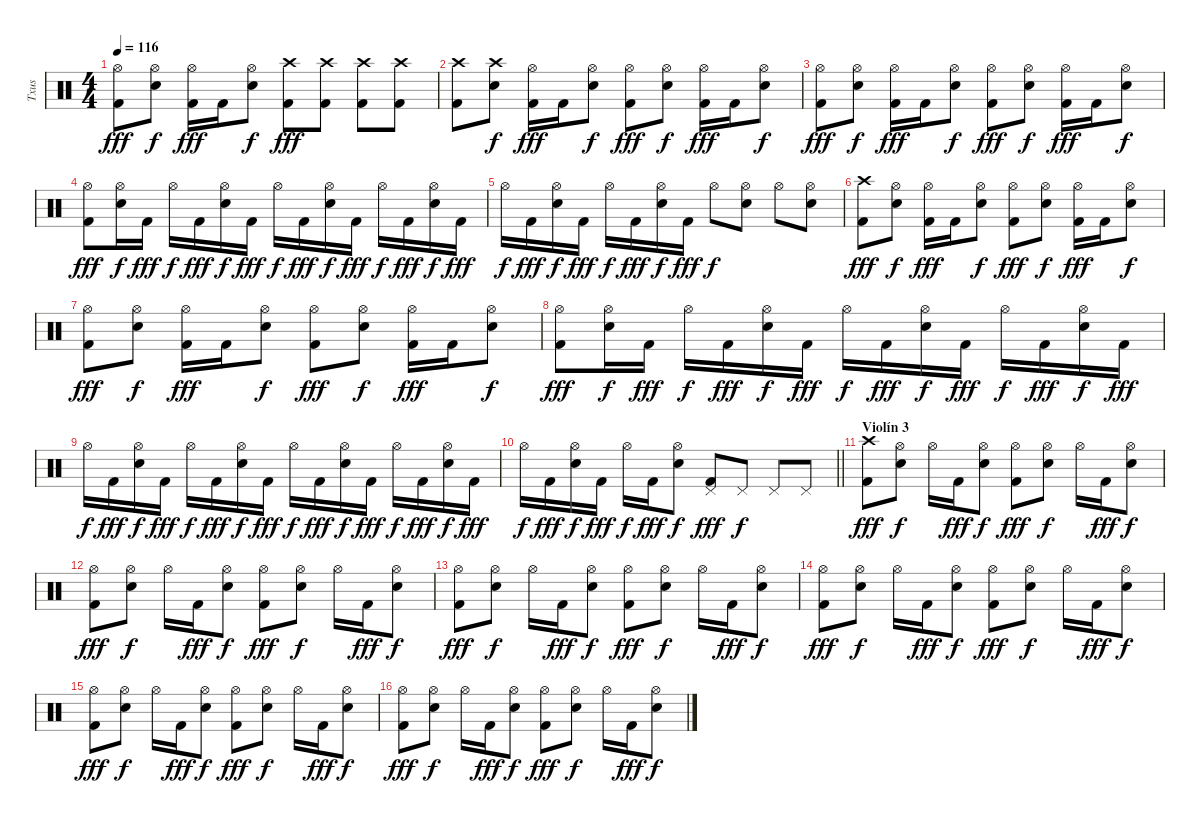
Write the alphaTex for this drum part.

\track ("Txus" "Txus") {instrument percussion}
\staff {score}
\articulation defaults
\ts (4 4)
\tempo 116
\clef neutral
\ks c
("Kick (hit) 2" "Hi-Hat (open)").8{dy fff} ("Electric Snare (hit)" "Hi-Hat (open)").8{dy f} ("Kick (hit) 2" "Hi-Hat (open)").16{dy fff} "Kick (hit) 2".16 ("Electric Snare (hit)" "Hi-Hat (open)").8{dy f} ("Kick (hit) 2" "Crash high (hit)").8{dy fff} ("Kick (hit) 2" "Crash high (hit)").8 ("Kick (hit) 2" "Crash high (hit)").8 ("Kick (hit) 2" "Crash high (hit)").8 |
("Kick (hit) 2" "Crash high (hit)").8 ("Electric Snare (hit)" "Crash high (hit)").8{dy f} ("Kick (hit) 2" "Hi-Hat (open)").16{dy fff} "Kick (hit) 2".16 ("Electric Snare (hit)" "Hi-Hat (open)").8{dy f} ("Kick (hit) 2" "Hi-Hat (open)").8{dy fff} ("Electric Snare (hit)" "Hi-Hat (open)").8{dy f} ("Kick (hit) 2" "Hi-Hat (open)").16{dy fff} "Kick (hit) 2".16 ("Electric Snare (hit)" "Hi-Hat (open)").8{dy f} |
("Kick (hit) 2" "Hi-Hat (open)").8{dy fff} ("Electric Snare (hit)" "Hi-Hat (open)").8{dy f} ("Kick (hit) 2" "Hi-Hat (open)").16{dy fff} "Kick (hit) 2".16 ("Electric Snare (hit)" "Hi-Hat (open)").8{dy f} ("Kick (hit) 2" "Hi-Hat (open)").8{dy fff} ("Electric Snare (hit)" "Hi-Hat (open)").8{dy f} ("Kick (hit) 2" "Hi-Hat (open)").16{dy fff} "Kick (hit) 2".16 ("Electric Snare (hit)" "Hi-Hat (open)").8{dy f} |
("Kick (hit) 2" "Hi-Hat (open)").8{dy fff} ("Electric Snare (hit)" "Hi-Hat (open)").16{dy f} "Kick (hit) 2".16{dy fff} "Hi-Hat (open)".16{dy f} "Kick (hit) 2".16{dy fff} ("Electric Snare (hit)" "Hi-Hat (open)").16{dy f} "Kick (hit) 2".16{dy fff} "Hi-Hat (open)".16{dy f} "Kick (hit) 2".16{dy fff} ("Electric Snare (hit)" "Hi-Hat (open)").16{dy f} "Kick (hit) 2".16{dy fff} "Hi-Hat (open)".16{dy f} "Kick (hit) 2".16{dy fff} ("Electric Snare (hit)" "Hi-Hat (open)").16{dy f} "Kick (hit) 2".16{dy fff} |
"Hi-Hat (open)".16{dy f} "Kick (hit) 2".16{dy fff} ("Electric Snare (hit)" "Hi-Hat (open)").16{dy f} "Kick (hit) 2".16{dy fff} "Hi-Hat (open)".16{dy f} "Kick (hit) 2".16{dy fff} ("Electric Snare (hit)" "Hi-Hat (open)").16{dy f} "Kick (hit) 2".16{dy fff} "Hi-Hat (open)".8{dy f} ("Electric Snare (hit)" "Hi-Hat (open)").8 "Hi-Hat (open)".8 ("Electric Snare (hit)" "Hi-Hat (open)").8 |
("Kick (hit) 2" "Crash high (hit)").8{dy fff} ("Electric Snare (hit)" "Hi-Hat (open)").8{dy f} ("Kick (hit) 2" "Hi-Hat (open)").16{dy fff} "Kick (hit) 2".16 ("Electric Snare (hit)" "Hi-Hat (open)").8{dy f} ("Kick (hit) 2" "Hi-Hat (open)").8{dy fff} ("Electric Snare (hit)" "Hi-Hat (open)").8{dy f} ("Kick (hit) 2" "Hi-Hat (open)").16{dy fff} "Kick (hit) 2".16 ("Electric Snare (hit)" "Hi-Hat (open)").8{dy f} |
("Kick (hit) 2" "Hi-Hat (open)").8{dy fff} ("Electric Snare (hit)" "Hi-Hat (open)").8{dy f} ("Kick (hit) 2" "Hi-Hat (open)").16{dy fff} "Kick (hit) 2".16 ("Electric Snare (hit)" "Hi-Hat (open)").8{dy f} ("Kick (hit) 2" "Hi-Hat (open)").8{dy fff} ("Electric Snare (hit)" "Hi-Hat (open)").8{dy f} ("Kick (hit) 2" "Hi-Hat (open)").16{dy fff} "Kick (hit) 2".16 ("Electric Snare (hit)" "Hi-Hat (open)").8{dy f} |
("Kick (hit) 2" "Hi-Hat (open)").8{dy fff} ("Electric Snare (hit)" "Hi-Hat (open)").16{dy f} "Kick (hit) 2".16{dy fff} "Hi-Hat (open)".16{dy f} "Kick (hit) 2".16{dy fff} ("Electric Snare (hit)" "Hi-Hat (open)").16{dy f} "Kick (hit) 2".16{dy fff} "Hi-Hat (open)".16{dy f} "Kick (hit) 2".16{dy fff} ("Electric Snare (hit)" "Hi-Hat (open)").16{dy f} "Kick (hit) 2".16{dy fff} "Hi-Hat (open)".16{dy f} "Kick (hit) 2".16{dy fff} ("Electric Snare (hit)" "Hi-Hat (open)").16{dy f} "Kick (hit) 2".16{dy fff} |
"Hi-Hat (open)".16{dy f} "Kick (hit) 2".16{dy fff} ("Electric Snare (hit)" "Hi-Hat (open)").16{dy f} "Kick (hit) 2".16{dy fff} "Hi-Hat (open)".16{dy f} "Kick (hit) 2".16{dy fff} ("Electric Snare (hit)" "Hi-Hat (open)").16{dy f} "Kick (hit) 2".16{dy fff} "Hi-Hat (open)".16{dy f} "Kick (hit) 2".16{dy fff} ("Electric Snare (hit)" "Hi-Hat (open)").16{dy f} "Kick (hit) 2".16{dy fff} "Hi-Hat (open)".16{dy f} "Kick (hit) 2".16{dy fff} ("Electric Snare (hit)" "Hi-Hat (open)").16{dy f} "Kick (hit) 2".16{dy fff} |
\barLineRight lightlight "Hi-Hat (open)".16{dy f} "Kick (hit) 2".16{dy fff}
("Electric Snare (hit)" "Hi-Hat (open)").16{dy f} "Kick (hit) 2".16{dy fff} "Hi-Hat (open)".16{dy f} "Kick (hit) 2".16{dy fff} ("Electric Snare (hit)" "Hi-Hat (open)").8{dy f} ("Kick (hit) 2" "Pedal Hi-Hat (hit)").8{dy fff} "Pedal Hi-Hat (hit)".8{dy f} "Pedal Hi-Hat (hit)".8 "Pedal Hi-Hat (hit)".8 |
\section ("" "Violín 3")
("Kick (hit) 2" "Crash high (hit)").8{dy fff} ("Electric Snare (hit)" "Hi-Hat (open)").8{dy f} "Hi-Hat (open)".16 "Kick (hit) 2".16{dy fff} ("Electric Snare (hit)" "Hi-Hat (open)").8{dy f} ("Kick (hit) 2" "Hi-Hat (open)").8{dy fff} ("Electric Snare (hit)" "Hi-Hat (open)").8{dy f} "Hi-Hat (open)".16 "Kick (hit) 2".16{dy fff} ("Electric Snare (hit)" "Hi-Hat (open)").8{dy f} |
("Kick (hit) 2" "Hi-Hat (open)").8{dy fff} ("Electric Snare (hit)" "Hi-Hat (open)").8{dy f} "Hi-Hat (open)".16 "Kick (hit) 2".16{dy fff} ("Electric Snare (hit)" "Hi-Hat (open)").8{dy f} ("Kick (hit) 2" "Hi-Hat (open)").8{dy fff} ("Electric Snare (hit)" "Hi-Hat (open)").8{dy f} "Hi-Hat (open)".16 "Kick (hit) 2".16{dy fff} ("Electric Snare (hit)" "Hi-Hat (open)").8{dy f} |
("Kick (hit) 2" "Hi-Hat (open)").8{dy fff} ("Electric Snare (hit)" "Hi-Hat (open)").8{dy f} "Hi-Hat (open)".16 "Kick (hit) 2".16{dy fff} ("Electric Snare (hit)" "Hi-Hat (open)").8{dy f} ("Kick (hit) 2" "Hi-Hat (open)").8{dy fff} ("Electric Snare (hit)" "Hi-Hat (open)").8{dy f} "Hi-Hat (open)".16 "Kick (hit) 2".16{dy fff} ("Electric Snare (hit)" "Hi-Hat (open)").8{dy f} |
("Kick (hit) 2" "Hi-Hat (open)").8{dy fff} ("Electric Snare (hit)" "Hi-Hat (open)").8{dy f} "Hi-Hat (open)".16 "Kick (hit) 2".16{dy fff} ("Electric Snare (hit)" "Hi-Hat (open)").8{dy f} ("Kick (hit) 2" "Hi-Hat (open)").8{dy fff} ("Electric Snare (hit)" "Hi-Hat (open)").8{dy f} "Hi-Hat (open)".16 "Kick (hit) 2".16{dy fff} ("Electric Snare (hit)" "Hi-Hat (open)").8{dy f} |
("Kick (hit) 2" "Hi-Hat (open)").8{dy fff} ("Electric Snare (hit)" "Hi-Hat (open)").8{dy f} "Hi-Hat (open)".16 "Kick (hit) 2".16{dy fff} ("Electric Snare (hit)" "Hi-Hat (open)").8{dy f} ("Kick (hit) 2" "Hi-Hat (open)").8{dy fff} ("Electric Snare (hit)" "Hi-Hat (open)").8{dy f} "Hi-Hat (open)".16 "Kick (hit) 2".16{dy fff} ("Electric Snare (hit)" "Hi-Hat (open)").8{dy f} |
("Kick (hit) 2" "Hi-Hat (open)").8{dy fff} ("Electric Snare (hit)" "Hi-Hat (open)").8{dy f} "Hi-Hat (open)".16 "Kick (hit) 2".16{dy fff} ("Electric Snare (hit)" "Hi-Hat (open)").8{dy f} ("Kick (hit) 2" "Hi-Hat (open)").8{dy fff} ("Electric Snare (hit)" "Hi-Hat (open)").8{dy f} "Hi-Hat (open)".16 "Kick (hit) 2".16{dy fff} ("Electric Snare (hit)" "Hi-Hat (open)").8{dy f}
